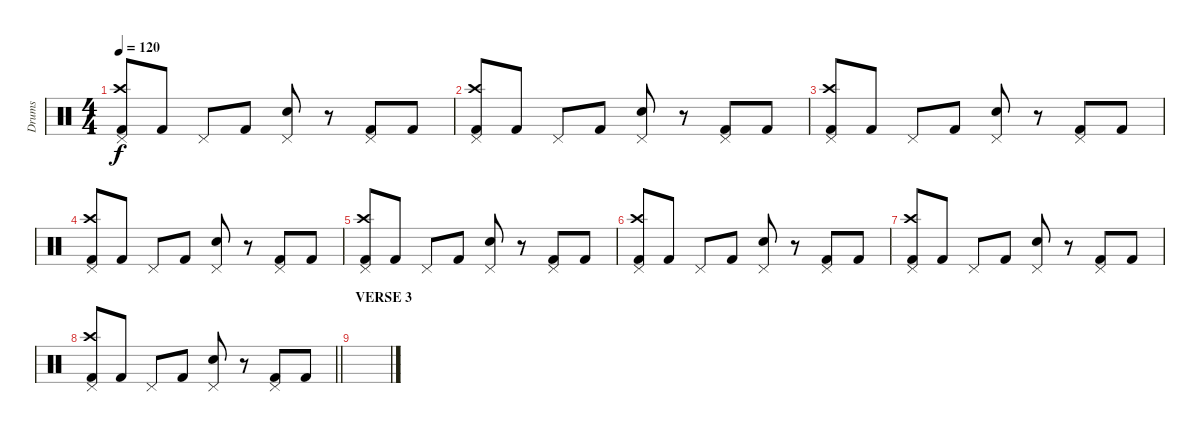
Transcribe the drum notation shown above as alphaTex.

\track ("Drums" "Drums") {instrument percussion}
\staff {score}
\articulation defaults
\ts (4 4)
\tempo 120
\clef neutral
\ks c
("Pedal Hi-Hat (hit)" "Crash high (hit)" "Kick (hit) 2").8{dy f} "Kick (hit) 2".8 "Pedal Hi-Hat (hit)".8 "Kick (hit) 2".8 ("Pedal Hi-Hat (hit)" "Snare (hit) 2").8 r.8 ("Pedal Hi-Hat (hit)" "Kick (hit) 2").8 "Kick (hit) 2".8 |
("Pedal Hi-Hat (hit)" "Crash high (hit)" "Kick (hit) 2").8 "Kick (hit) 2".8 "Pedal Hi-Hat (hit)".8 "Kick (hit) 2".8 ("Pedal Hi-Hat (hit)" "Snare (hit) 2").8 r.8 ("Pedal Hi-Hat (hit)" "Kick (hit) 2").8 "Kick (hit) 2".8 |
("Pedal Hi-Hat (hit)" "Crash high (hit)" "Kick (hit) 2").8 "Kick (hit) 2".8 "Pedal Hi-Hat (hit)".8 "Kick (hit) 2".8 ("Pedal Hi-Hat (hit)" "Snare (hit) 2").8 r.8 ("Pedal Hi-Hat (hit)" "Kick (hit) 2").8 "Kick (hit) 2".8 |
("Pedal Hi-Hat (hit)" "Crash high (hit)" "Kick (hit) 2").8 "Kick (hit) 2".8 "Pedal Hi-Hat (hit)".8 "Kick (hit) 2".8 ("Pedal Hi-Hat (hit)" "Snare (hit) 2").8 r.8 ("Pedal Hi-Hat (hit)" "Kick (hit) 2").8 "Kick (hit) 2".8 |
("Pedal Hi-Hat (hit)" "Crash high (hit)" "Kick (hit) 2").8 "Kick (hit) 2".8 "Pedal Hi-Hat (hit)".8 "Kick (hit) 2".8 ("Pedal Hi-Hat (hit)" "Snare (hit) 2").8 r.8 ("Pedal Hi-Hat (hit)" "Kick (hit) 2").8 "Kick (hit) 2".8 |
("Pedal Hi-Hat (hit)" "Crash high (hit)" "Kick (hit) 2").8 "Kick (hit) 2".8 "Pedal Hi-Hat (hit)".8 "Kick (hit) 2".8 ("Pedal Hi-Hat (hit)" "Snare (hit) 2").8 r.8 ("Pedal Hi-Hat (hit)" "Kick (hit) 2").8 "Kick (hit) 2".8 |
("Pedal Hi-Hat (hit)" "Crash high (hit)" "Kick (hit) 2").8 "Kick (hit) 2".8 "Pedal Hi-Hat (hit)".8 "Kick (hit) 2".8 ("Pedal Hi-Hat (hit)" "Snare (hit) 2").8 r.8 ("Pedal Hi-Hat (hit)" "Kick (hit) 2").8 "Kick (hit) 2".8 |
\barLineRight lightlight
("Pedal Hi-Hat (hit)" "Crash high (hit)" "Kick (hit) 2").8 "Kick (hit) 2".8 "Pedal Hi-Hat (hit)".8 "Kick (hit) 2".8 ("Pedal Hi-Hat (hit)" "Snare (hit) 2").8 r.8 ("Pedal Hi-Hat (hit)" "Kick (hit) 2").8 "Kick (hit) 2".8 |
\section ("" "VERSE 3")
